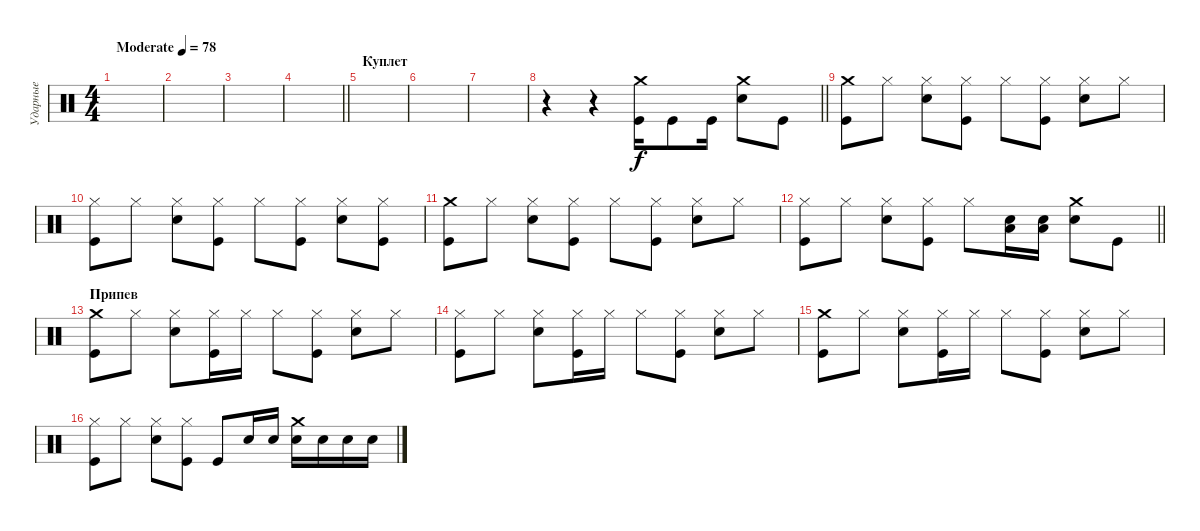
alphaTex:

\track ("Ударные" "Ударные") {instrument percussion}
\staff {score}
\articulation defaults
\ts (4 4)
\tempo (78 "Moderate")
\clef neutral
\ks c
|
|
|
\barLineRight lightlight
|
\section ("" "Куплет")
|
|
|
\barLineRight lightlight
r.4 r.4 ("Kick (hit)" "Crash medium (hit)").16 "Kick (hit)".8 "Kick (hit)".16 ("Snare (hit) 2" "Crash medium (hit)").8 "Kick (hit)".8 |
("Crash medium (hit)" "Kick (hit)").8 "Hi-Hat (closed)".8 ("Hi-Hat (closed)" "Snare (hit) 2").8 ("Hi-Hat (closed)" "Kick (hit)").8 "Hi-Hat (closed)".8 ("Hi-Hat (closed)" "Kick (hit)").8 ("Hi-Hat (closed)" "Snare (hit) 2").8 "Hi-Hat (closed)".8 |
("Hi-Hat (closed)" "Kick (hit)").8 "Hi-Hat (closed)".8 ("Hi-Hat (closed)" "Snare (hit) 2").8 ("Hi-Hat (closed)" "Kick (hit)").8 "Hi-Hat (closed)".8 ("Hi-Hat (closed)" "Kick (hit)").8 ("Hi-Hat (closed)" "Snare (hit) 2").8 ("Hi-Hat (closed)" "Kick (hit)").8 |
("Crash medium (hit)" "Kick (hit)").8 "Hi-Hat (closed)".8 ("Hi-Hat (closed)" "Snare (hit) 2").8 ("Hi-Hat (closed)" "Kick (hit)").8 "Hi-Hat (closed)".8 ("Hi-Hat (closed)" "Kick (hit)").8 ("Hi-Hat (closed)" "Snare (hit) 2").8 "Hi-Hat (closed)".8 |
\barLineRight lightlight
("Hi-Hat (closed)" "Kick (hit)").8 "Hi-Hat (closed)".8 ("Hi-Hat (closed)" "Snare (hit) 2").8 ("Hi-Hat (closed)" "Kick (hit)").8 "Hi-Hat (closed)".8 ("Low Floor Tom (hit)" "Snare (hit) 2").16 ("Low Floor Tom (hit)" "Snare (hit) 2").16 ("Snare (hit) 2" "Crash medium (hit)").8 "Kick (hit)".8 |
\section ("" "Припев")
("Crash medium (hit)" "Kick (hit)").8 "Hi-Hat (closed)".8 ("Hi-Hat (closed)" "Snare (hit) 2").8 ("Hi-Hat (closed)" "Kick (hit)").16 "Hi-Hat (closed)".16 "Hi-Hat (closed)".8 ("Hi-Hat (closed)" "Kick (hit)").8 ("Hi-Hat (closed)" "Snare (hit) 2").8 "Hi-Hat (closed)".8 |
("Hi-Hat (closed)" "Kick (hit)").8 "Hi-Hat (closed)".8 ("Hi-Hat (closed)" "Snare (hit) 2").8 ("Hi-Hat (closed)" "Kick (hit)").16 "Hi-Hat (closed)".16 "Hi-Hat (closed)".8 ("Hi-Hat (closed)" "Kick (hit)").8 ("Hi-Hat (closed)" "Snare (hit) 2").8 "Hi-Hat (closed)".8 |
("Crash medium (hit)" "Kick (hit)").8 "Hi-Hat (closed)".8 ("Hi-Hat (closed)" "Snare (hit) 2").8 ("Hi-Hat (closed)" "Kick (hit)").16 "Hi-Hat (closed)".16 "Hi-Hat (closed)".8 ("Hi-Hat (closed)" "Kick (hit)").8 ("Hi-Hat (closed)" "Snare (hit) 2").8 "Hi-Hat (closed)".8 |
("Hi-Hat (closed)" "Kick (hit)").8 "Hi-Hat (closed)".8 ("Hi-Hat (closed)" "Snare (hit) 2").8 ("Hi-Hat (closed)" "Kick (hit)").8 "Kick (hit)".8 "Snare (hit) 2".16 "Snare (hit) 2".16 ("Snare (hit) 2" "Crash medium (hit)").16 "Snare (hit) 2".16 "Snare (hit) 2".16 "Snare (hit) 2".16
